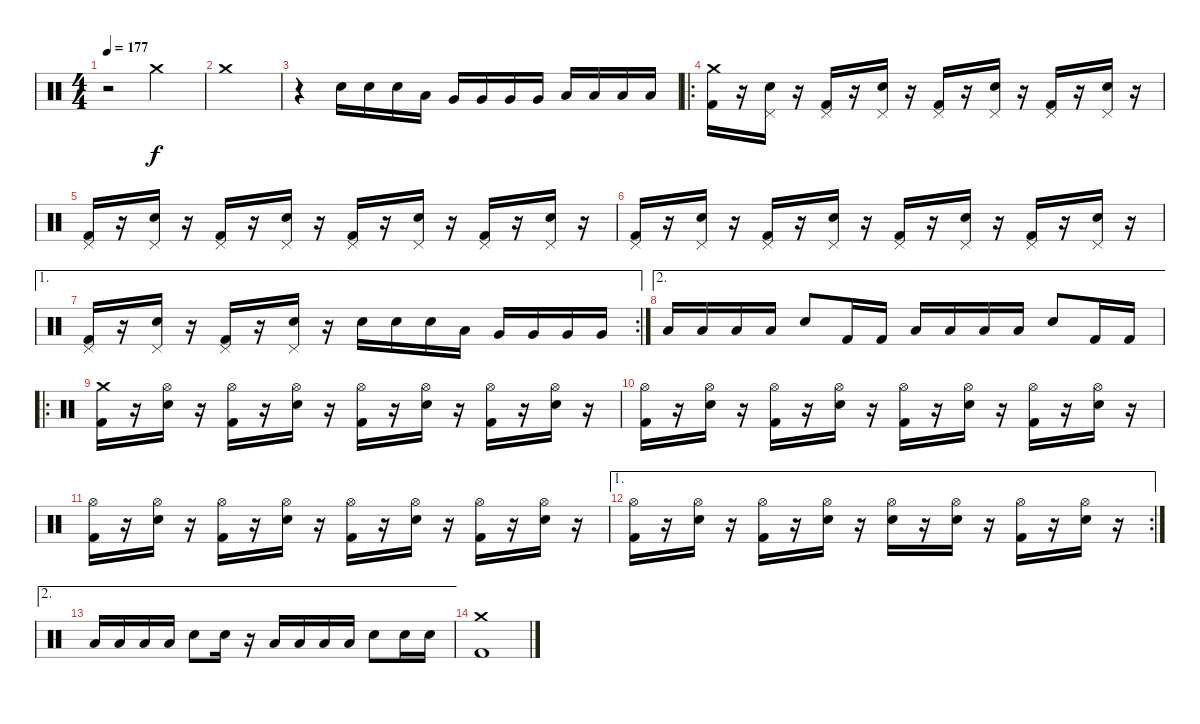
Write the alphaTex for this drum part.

\track "" {instrument percussion}
\staff {score}
\articulation defaults
\ts (4 4)
\tempo 177
\clef neutral
\ks c
r.2{dy f} "Crash medium (hit)".2 |
"Crash medium (hit)".1 |
r.4 "Electric Snare (hit)".16 "Electric Snare (hit)".16 "Electric Snare (hit)".16 "Low Floor Tom (hit)".16 "Very Low Tom (hit)".16 "Very Low Tom (hit)".16 "Very Low Tom (hit)".16 "Very Low Tom (hit)".16 "Low Tom (hit)".16 "Low Tom (hit)".16 "Low Tom (hit)".16 "Low Tom (hit)".16 |
\ro
("Crash medium (hit)" "Kick (hit) 2").16 r.16 ("Electric Snare (hit)" "Pedal Hi-Hat (hit)").16 r.16 ("Kick (hit) 2" "Pedal Hi-Hat (hit)").16 r.16 ("Electric Snare (hit)" "Pedal Hi-Hat (hit)").16 r.16 ("Kick (hit) 2" "Pedal Hi-Hat (hit)").16 r.16 ("Electric Snare (hit)" "Pedal Hi-Hat (hit)").16 r.16 ("Kick (hit) 2" "Pedal Hi-Hat (hit)").16 r.16 ("Electric Snare (hit)" "Pedal Hi-Hat (hit)").16 r.16 |
("Kick (hit) 2" "Pedal Hi-Hat (hit)").16 r.16 ("Electric Snare (hit)" "Pedal Hi-Hat (hit)").16 r.16 ("Kick (hit) 2" "Pedal Hi-Hat (hit)").16 r.16 ("Electric Snare (hit)" "Pedal Hi-Hat (hit)").16 r.16 ("Kick (hit) 2" "Pedal Hi-Hat (hit)").16 r.16 ("Electric Snare (hit)" "Pedal Hi-Hat (hit)").16 r.16 ("Kick (hit) 2" "Pedal Hi-Hat (hit)").16 r.16 ("Electric Snare (hit)" "Pedal Hi-Hat (hit)").16 r.16 |
("Kick (hit) 2" "Pedal Hi-Hat (hit)").16 r.16 ("Electric Snare (hit)" "Pedal Hi-Hat (hit)").16 r.16 ("Kick (hit) 2" "Pedal Hi-Hat (hit)").16 r.16 ("Electric Snare (hit)" "Pedal Hi-Hat (hit)").16 r.16 ("Kick (hit) 2" "Pedal Hi-Hat (hit)").16 r.16 ("Electric Snare (hit)" "Pedal Hi-Hat (hit)").16 r.16 ("Kick (hit) 2" "Pedal Hi-Hat (hit)").16 r.16 ("Electric Snare (hit)" "Pedal Hi-Hat (hit)").16 r.16 |
\ae 1
\rc 2
("Kick (hit) 2" "Pedal Hi-Hat (hit)").16 r.16 ("Electric Snare (hit)" "Pedal Hi-Hat (hit)").16 r.16 ("Kick (hit) 2" "Pedal Hi-Hat (hit)").16 r.16 ("Electric Snare (hit)" "Pedal Hi-Hat (hit)").16 r.16 "Electric Snare (hit)".16 "Electric Snare (hit)".16 "Electric Snare (hit)".16 "Low Floor Tom (hit)".16 "Very Low Tom (hit)".16 "Very Low Tom (hit)".16 "Very Low Tom (hit)".16 "Very Low Tom (hit)".16 |
\ae 2 "Low Floor Tom (hit)".16 "Low Floor Tom (hit)".16 "Low Floor Tom (hit)".16 "Low Floor Tom (hit)".16 "Electric Snare (hit)".8 "Kick (hit) 2".16 "Kick (hit) 2".16 "Low Tom (hit)".16 "Low Tom (hit)".16 "Low Tom (hit)".16 "Low Tom (hit)".16 "Electric Snare (hit)".8 "Kick (hit) 2".16 "Kick (hit) 2".16
|
\ro
("Crash medium (hit)" "Kick (hit) 2").16 r.16 ("Electric Snare (hit)" "Hi-Hat (open)").16 r.16 ("Kick (hit) 2" "Hi-Hat (open)").16 r.16 ("Electric Snare (hit)" "Hi-Hat (open)").16 r.16 ("Kick (hit) 2" "Hi-Hat (open)").16 r.16 ("Electric Snare (hit)" "Hi-Hat (open)").16 r.16 ("Kick (hit) 2" "Hi-Hat (open)").16 r.16 ("Electric Snare (hit)" "Hi-Hat (open)").16 r.16 |
("Kick (hit) 2" "Hi-Hat (open)").16 r.16 ("Electric Snare (hit)" "Hi-Hat (open)").16 r.16 ("Kick (hit) 2" "Hi-Hat (open)").16 r.16 ("Electric Snare (hit)" "Hi-Hat (open)").16 r.16 ("Kick (hit) 2" "Hi-Hat (open)").16 r.16 ("Electric Snare (hit)" "Hi-Hat (open)").16 r.16 ("Kick (hit) 2" "Hi-Hat (open)").16 r.16 ("Electric Snare (hit)" "Hi-Hat (open)").16 r.16 |
("Kick (hit) 2" "Hi-Hat (open)").16 r.16 ("Electric Snare (hit)" "Hi-Hat (open)").16 r.16 ("Kick (hit) 2" "Hi-Hat (open)").16 r.16 ("Electric Snare (hit)" "Hi-Hat (open)").16 r.16 ("Kick (hit) 2" "Hi-Hat (open)").16 r.16 ("Electric Snare (hit)" "Hi-Hat (open)").16 r.16 ("Kick (hit) 2" "Hi-Hat (open)").16 r.16 ("Electric Snare (hit)" "Hi-Hat (open)").16 r.16 |
\ae 1
\rc 2
("Kick (hit) 2" "Hi-Hat (open)").16 r.16 ("Electric Snare (hit)" "Hi-Hat (open)").16 r.16 ("Kick (hit) 2" "Hi-Hat (open)").16 r.16 ("Electric Snare (hit)" "Hi-Hat (open)").16 r.16 ("Electric Snare (hit)" "Hi-Hat (open)").16 r.16 ("Electric Snare (hit)" "Hi-Hat (open)").16 r.16 ("Kick (hit) 2" "Hi-Hat (open)").16 r.16 ("Electric Snare (hit)" "Hi-Hat (open)").16 r.16 |
\ae 2 "Low Floor Tom (hit)".16 "Low Floor Tom (hit)".16 "Low Floor Tom (hit)".16 "Low Floor Tom (hit)".16 "Electric Snare (hit)".8 "Electric Snare (hit)".16
r.16 "Low Tom (hit)".16 "Low Tom (hit)".16 "Low Tom (hit)".16 "Low Tom (hit)".16 "Electric Snare (hit)".8 "Electric Snare (hit)".16 "Electric Snare (hit)".16 |
("Kick (hit) 2" "Crash medium (hit)").1
